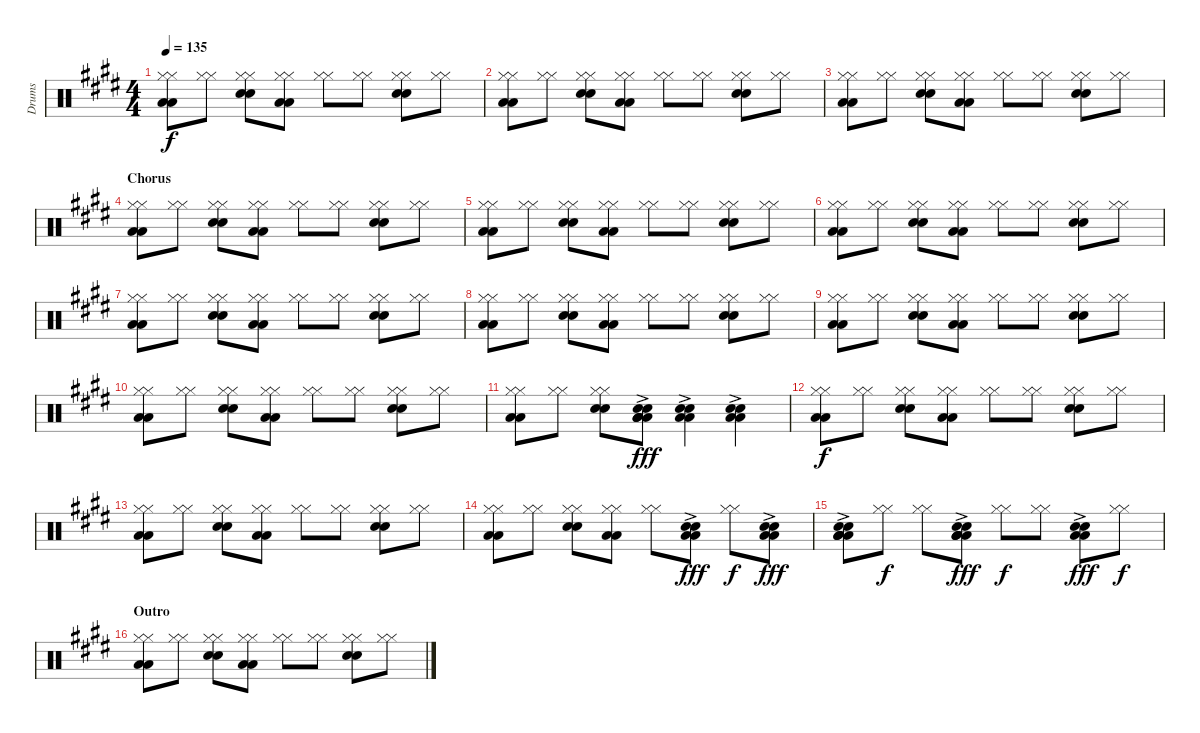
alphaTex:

\track ("Drums" "Drums") {instrument percussion}
\staff {score}
\articulation defaults
\ts (4 4)
\tempo 135
\clef neutral
\ks e
("Hi-Hat (closed)" "Hi-Hat (closed)" "Low Floor Tom (hit)" "Low Floor Tom (hit)").8{dy f} ("Hi-Hat (closed)" "Hi-Hat (closed)").8 ("Hi-Hat (closed)" "Hi-Hat (closed)" "Electric Snare (hit)" "Electric Snare (hit)").8 ("Hi-Hat (closed)" "Hi-Hat (closed)" "Low Floor Tom (hit)" "Low Floor Tom (hit)").8 ("Hi-Hat (closed)" "Hi-Hat (closed)").8 ("Hi-Hat (closed)" "Hi-Hat (closed)").8 ("Hi-Hat (closed)" "Hi-Hat (closed)" "Electric Snare (hit)" "Electric Snare (hit)").8 ("Hi-Hat (closed)" "Hi-Hat (closed)").8 |
("Hi-Hat (closed)" "Hi-Hat (closed)" "Low Floor Tom (hit)" "Low Floor Tom (hit)").8 ("Hi-Hat (closed)" "Hi-Hat (closed)").8 ("Hi-Hat (closed)" "Hi-Hat (closed)" "Electric Snare (hit)" "Electric Snare (hit)").8 ("Hi-Hat (closed)" "Hi-Hat (closed)" "Low Floor Tom (hit)" "Low Floor Tom (hit)").8 ("Hi-Hat (closed)" "Hi-Hat (closed)").8 ("Hi-Hat (closed)" "Hi-Hat (closed)").8 ("Hi-Hat (closed)" "Hi-Hat (closed)" "Electric Snare (hit)" "Electric Snare (hit)").8 ("Hi-Hat (closed)" "Hi-Hat (closed)").8 |
("Hi-Hat (closed)" "Hi-Hat (closed)" "Low Floor Tom (hit)" "Low Floor Tom (hit)").8 ("Hi-Hat (closed)" "Hi-Hat (closed)").8 ("Hi-Hat (closed)" "Hi-Hat (closed)" "Electric Snare (hit)" "Electric Snare (hit)").8 ("Hi-Hat (closed)" "Hi-Hat (closed)" "Low Floor Tom (hit)" "Low Floor Tom (hit)").8 ("Hi-Hat (closed)" "Hi-Hat (closed)").8 ("Hi-Hat (closed)" "Hi-Hat (closed)").8 ("Hi-Hat (closed)" "Hi-Hat (closed)" "Electric Snare (hit)" "Electric Snare (hit)").8 ("Hi-Hat (closed)" "Hi-Hat (closed)").8 |
\section ("" "Chorus")
("Hi-Hat (closed)" "Hi-Hat (closed)" "Low Floor Tom (hit)" "Low Floor Tom (hit)").8 ("Hi-Hat (closed)" "Hi-Hat (closed)").8 ("Hi-Hat (closed)" "Hi-Hat (closed)" "Electric Snare (hit)" "Electric Snare (hit)").8 ("Hi-Hat (closed)" "Hi-Hat (closed)" "Low Floor Tom (hit)" "Low Floor Tom (hit)").8 ("Hi-Hat (closed)" "Hi-Hat (closed)").8 ("Hi-Hat (closed)" "Hi-Hat (closed)").8 ("Hi-Hat (closed)" "Hi-Hat (closed)" "Electric Snare (hit)" "Electric Snare (hit)").8 ("Hi-Hat (closed)" "Hi-Hat (closed)").8 |
("Hi-Hat (closed)" "Hi-Hat (closed)" "Low Floor Tom (hit)" "Low Floor Tom (hit)").8 ("Hi-Hat (closed)" "Hi-Hat (closed)").8 ("Hi-Hat (closed)" "Hi-Hat (closed)" "Electric Snare (hit)" "Electric Snare (hit)").8 ("Hi-Hat (closed)" "Hi-Hat (closed)" "Low Floor Tom (hit)" "Low Floor Tom (hit)").8 ("Hi-Hat (closed)" "Hi-Hat (closed)").8 ("Hi-Hat (closed)" "Hi-Hat (closed)").8 ("Hi-Hat (closed)" "Hi-Hat (closed)" "Electric Snare (hit)" "Electric Snare (hit)").8 ("Hi-Hat (closed)" "Hi-Hat (closed)").8 |
("Hi-Hat (closed)" "Hi-Hat (closed)" "Low Floor Tom (hit)" "Low Floor Tom (hit)").8 ("Hi-Hat (closed)" "Hi-Hat (closed)").8 ("Hi-Hat (closed)" "Hi-Hat (closed)" "Electric Snare (hit)" "Electric Snare (hit)").8 ("Hi-Hat (closed)" "Hi-Hat (closed)" "Low Floor Tom (hit)" "Low Floor Tom (hit)").8 ("Hi-Hat (closed)" "Hi-Hat (closed)").8 ("Hi-Hat (closed)" "Hi-Hat (closed)").8 ("Hi-Hat (closed)" "Hi-Hat (closed)" "Electric Snare (hit)" "Electric Snare (hit)").8 ("Hi-Hat (closed)" "Hi-Hat (closed)").8 |
("Hi-Hat (closed)" "Hi-Hat (closed)" "Low Floor Tom (hit)" "Low Floor Tom (hit)").8 ("Hi-Hat (closed)" "Hi-Hat (closed)").8 ("Hi-Hat (closed)" "Hi-Hat (closed)" "Electric Snare (hit)" "Electric Snare (hit)").8 ("Hi-Hat (closed)" "Hi-Hat (closed)" "Low Floor Tom (hit)" "Low Floor Tom (hit)").8 ("Hi-Hat (closed)" "Hi-Hat (closed)").8 ("Hi-Hat (closed)" "Hi-Hat (closed)").8 ("Hi-Hat (closed)" "Hi-Hat (closed)" "Electric Snare (hit)" "Electric Snare (hit)").8 ("Hi-Hat (closed)" "Hi-Hat (closed)").8 |
("Hi-Hat (closed)" "Hi-Hat (closed)" "Low Floor Tom (hit)" "Low Floor Tom (hit)").8 ("Hi-Hat (closed)" "Hi-Hat (closed)").8 ("Hi-Hat (closed)" "Hi-Hat (closed)" "Electric Snare (hit)" "Electric Snare (hit)").8 ("Hi-Hat (closed)" "Hi-Hat (closed)" "Low Floor Tom (hit)" "Low Floor Tom (hit)").8 ("Hi-Hat (closed)" "Hi-Hat (closed)").8 ("Hi-Hat (closed)" "Hi-Hat (closed)").8 ("Hi-Hat (closed)" "Hi-Hat (closed)" "Electric Snare (hit)" "Electric Snare (hit)").8 ("Hi-Hat (closed)" "Hi-Hat (closed)").8 |
("Hi-Hat (closed)" "Hi-Hat (closed)" "Low Floor Tom (hit)" "Low Floor Tom (hit)").8 ("Hi-Hat (closed)" "Hi-Hat (closed)").8 ("Hi-Hat (closed)" "Hi-Hat (closed)" "Electric Snare (hit)" "Electric Snare (hit)").8 ("Hi-Hat (closed)" "Hi-Hat (closed)" "Low Floor Tom (hit)" "Low Floor Tom (hit)").8 ("Hi-Hat (closed)" "Hi-Hat (closed)").8 ("Hi-Hat (closed)" "Hi-Hat (closed)").8 ("Hi-Hat (closed)" "Hi-Hat (closed)" "Electric Snare (hit)" "Electric Snare (hit)").8 ("Hi-Hat (closed)" "Hi-Hat (closed)").8 |
("Hi-Hat (closed)" "Hi-Hat (closed)" "Low Floor Tom (hit)" "Low Floor Tom (hit)").8 ("Hi-Hat (closed)" "Hi-Hat (closed)").8 ("Hi-Hat (closed)" "Hi-Hat (closed)" "Electric Snare (hit)" "Electric Snare (hit)").8 ("Hi-Hat (closed)" "Hi-Hat (closed)" "Low Floor Tom (hit)" "Low Floor Tom (hit)").8 ("Hi-Hat (closed)" "Hi-Hat (closed)").8 ("Hi-Hat (closed)" "Hi-Hat (closed)").8 ("Hi-Hat (closed)" "Hi-Hat (closed)" "Electric Snare (hit)" "Electric Snare (hit)").8 ("Hi-Hat (closed)" "Hi-Hat (closed)").8 |
("Hi-Hat (closed)" "Hi-Hat (closed)" "Low Floor Tom (hit)" "Low Floor Tom (hit)").8 ("Hi-Hat (closed)" "Hi-Hat (closed)").8 ("Hi-Hat (closed)" "Hi-Hat (closed)" "Electric Snare (hit)" "Electric Snare (hit)").8 ("Low Tom (hit)"{ac} "Low Tom (hit)"{ac} "Electric Snare (hit)"{ac} "Electric Snare (hit)"{ac} "Low Floor Tom (hit)"{ac} "Low Floor Tom (hit)"{ac}).8{dy fff} ("Low Tom (hit)"{ac} "Low Tom (hit)"{ac} "Electric Snare (hit)"{ac} "Electric Snare (hit)"{ac}).4 ("Low Tom (hit)"{ac} "Low Tom (hit)"{ac} "Electric Snare (hit)"{ac} "Electric Snare (hit)"{ac}).4 |
("Hi-Hat (closed)" "Hi-Hat (closed)" "Low Floor Tom (hit)" "Low Floor Tom (hit)").8{dy f} ("Hi-Hat (closed)" "Hi-Hat (closed)").8 ("Hi-Hat (closed)" "Hi-Hat (closed)" "Electric Snare (hit)" "Electric Snare (hit)").8 ("Hi-Hat (closed)" "Hi-Hat (closed)" "Low Floor Tom (hit)" "Low Floor Tom (hit)").8 ("Hi-Hat (closed)" "Hi-Hat (closed)").8 ("Hi-Hat (closed)" "Hi-Hat (closed)").8 ("Hi-Hat (closed)" "Hi-Hat (closed)" "Electric Snare (hit)" "Electric Snare (hit)").8 ("Hi-Hat (closed)" "Hi-Hat (closed)").8 |
("Hi-Hat (closed)" "Hi-Hat (closed)" "Low Floor Tom (hit)" "Low Floor Tom (hit)").8 ("Hi-Hat (closed)" "Hi-Hat (closed)").8 ("Hi-Hat (closed)" "Hi-Hat (closed)" "Electric Snare (hit)" "Electric Snare (hit)").8 ("Hi-Hat (closed)" "Hi-Hat (closed)" "Low Floor Tom (hit)" "Low Floor Tom (hit)").8 ("Hi-Hat (closed)" "Hi-Hat (closed)").8 ("Hi-Hat (closed)" "Hi-Hat (closed)").8 ("Hi-Hat (closed)" "Hi-Hat (closed)" "Electric Snare (hit)" "Electric Snare (hit)").8 ("Hi-Hat (closed)" "Hi-Hat (closed)").8 |
("Hi-Hat (closed)" "Hi-Hat (closed)" "Low Floor Tom (hit)" "Low Floor Tom (hit)").8 ("Hi-Hat (closed)" "Hi-Hat (closed)").8 ("Hi-Hat (closed)" "Hi-Hat (closed)" "Electric Snare (hit)" "Electric Snare (hit)").8 ("Hi-Hat (closed)" "Hi-Hat (closed)" "Low Floor Tom (hit)" "Low Floor Tom (hit)").8 ("Hi-Hat (closed)" "Hi-Hat (closed)").8 ("Low Tom (hit)"{ac} "Low Tom (hit)"{ac} "Electric Snare (hit)"{ac} "Electric Snare (hit)"{ac}).8{dy fff} ("Hi-Hat (closed)" "Hi-Hat (closed)").8{dy f} ("Low Tom (hit)"{ac} "Low Tom (hit)"{ac} "Electric Snare (hit)"{ac} "Electric Snare (hit)"{ac}).8{dy fff} |
("Low Tom (hit)"{ac} "Low Tom (hit)"{ac} "Electric Snare (hit)"{ac} "Electric Snare (hit)"{ac} "Low Floor Tom (hit)"{ac} "Low Floor Tom (hit)"{ac}).8 ("Hi-Hat (closed)" "Hi-Hat (closed)").8{dy f} ("Hi-Hat (closed)" "Hi-Hat (closed)").8 ("Low Tom (hit)"{ac} "Low Tom (hit)"{ac} "Electric Snare (hit)"{ac} "Electric Snare (hit)"{ac} "Low Floor Tom (hit)"{ac} "Low Floor Tom (hit)"{ac}).8{dy fff} ("Hi-Hat (closed)" "Hi-Hat (closed)").8{dy f} ("Hi-Hat (closed)" "Hi-Hat (closed)").8 ("Low Tom (hit)"{ac} "Low Tom (hit)"{ac} "Electric Snare (hit)"{ac} "Electric Snare (hit)"{ac}).8{dy fff} ("Hi-Hat (closed)" "Hi-Hat (closed)").8{dy f} |
\section ("" "Outro")
("Hi-Hat (closed)" "Hi-Hat (closed)" "Low Floor Tom (hit)" "Low Floor Tom (hit)").8 ("Hi-Hat (closed)" "Hi-Hat (closed)").8 ("Hi-Hat (closed)" "Hi-Hat (closed)" "Electric Snare (hit)" "Electric Snare (hit)").8 ("Hi-Hat (closed)" "Hi-Hat (closed)" "Low Floor Tom (hit)" "Low Floor Tom (hit)").8 ("Hi-Hat (closed)" "Hi-Hat (closed)").8 ("Hi-Hat (closed)" "Hi-Hat (closed)").8 ("Hi-Hat (closed)" "Hi-Hat (closed)" "Electric Snare (hit)" "Electric Snare (hit)").8 ("Hi-Hat (closed)" "Hi-Hat (closed)").8
